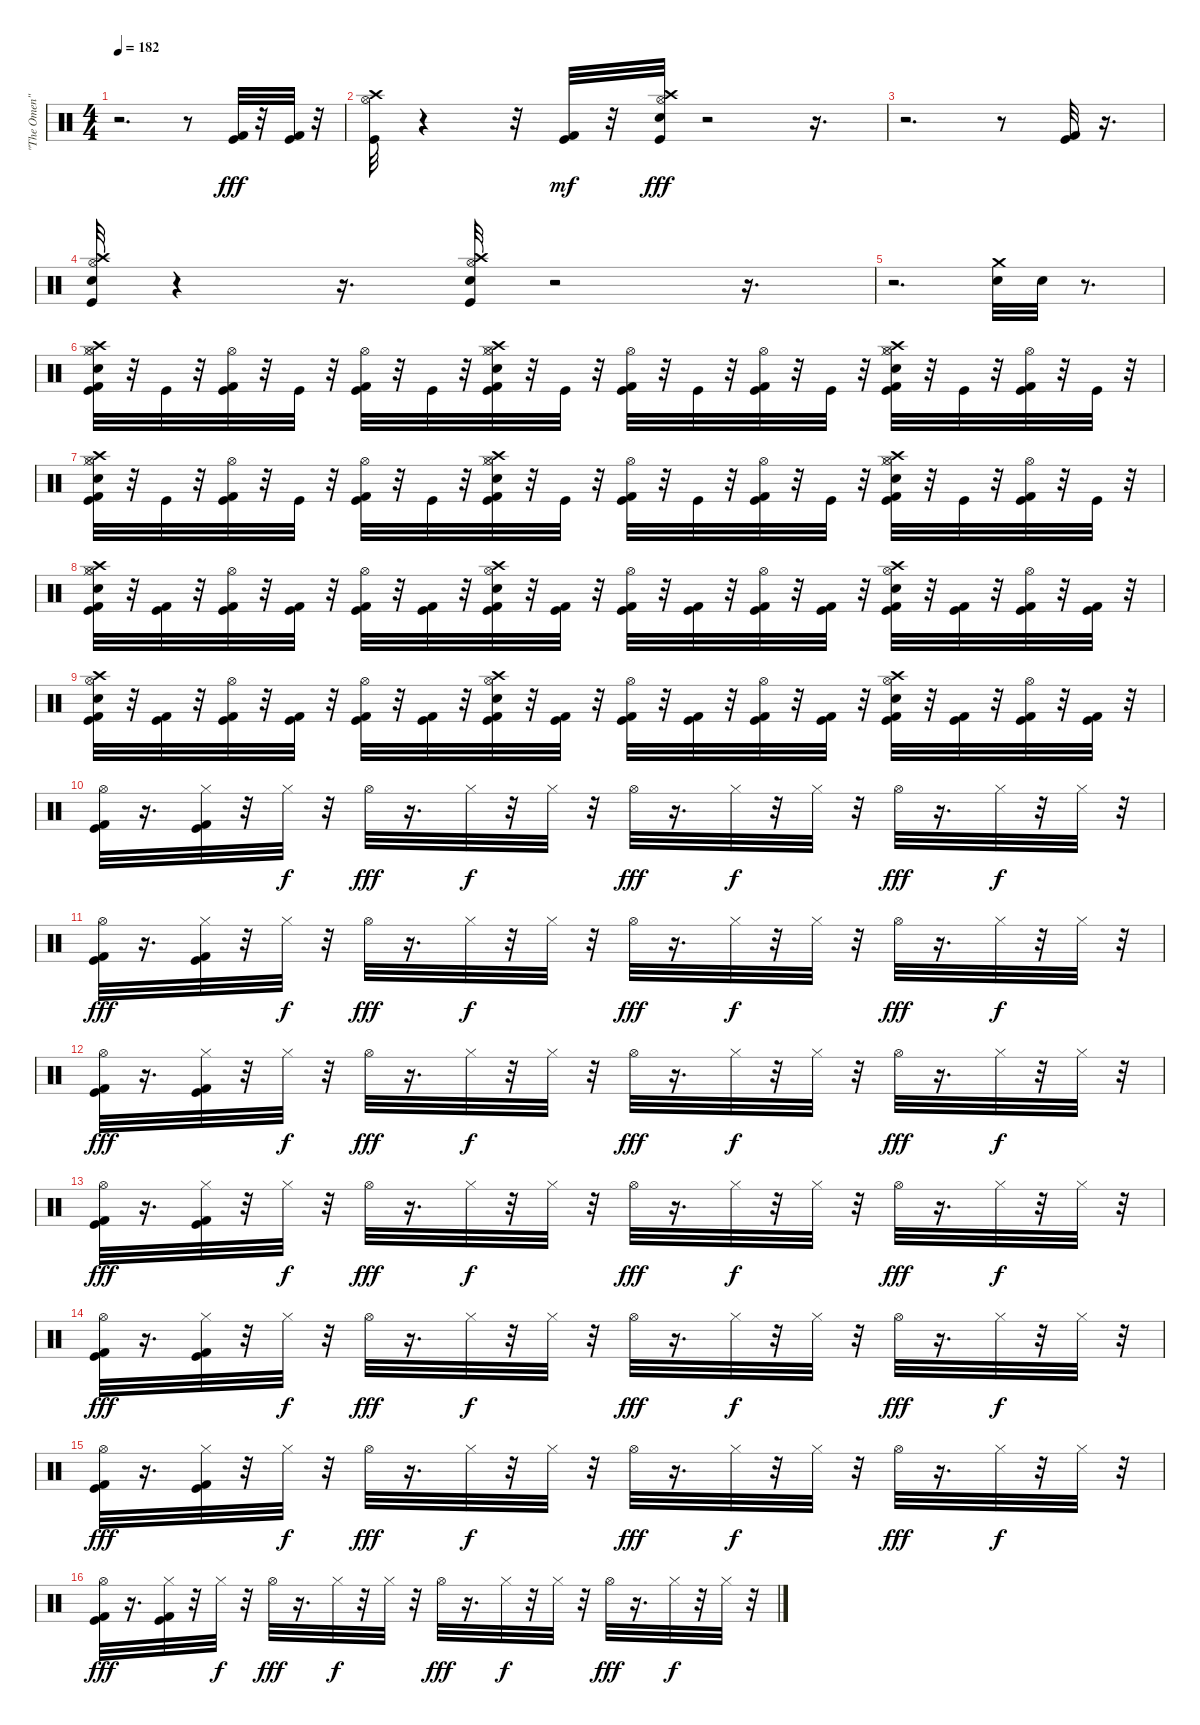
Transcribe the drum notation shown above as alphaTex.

\track ("\"The Omen\"" "\"The Omen\"") {instrument percussion}
\staff {score}
\articulation defaults
\ts (4 4)
\tempo 182
\clef neutral
\ks c
r.2{d dy f} r.8 ("Kick (hit)" "Kick (hit) 2").32{dy fff} r.32 ("Kick (hit)" "Kick (hit) 2").32 r.32 |
("Kick (hit)" "Hi-Hat (open)" "Crash high (hit)").32 r.4 r.32 ("Kick (hit)" "Kick (hit) 2").32{dy mf} r.32 ("Kick (hit)" "Snare (hit) 2" "Hi-Hat (open)" "Crash high (hit)").32{dy fff} r.2 r.16{d} |
r.2{d} r.8 ("Kick (hit)" "Kick (hit) 2").32 r.16{d} |
("Kick (hit)" "Snare (hit) 2" "Hi-Hat (open)" "Crash high (hit)").32 r.4 r.16{d} ("Kick (hit)" "Snare (hit) 2" "Hi-Hat (open)" "Crash high (hit)").32 r.2 r.16{d} |
r.2{d} ("Snare (hit) 2" "Crash medium (hit)").32 "Snare (hit) 2".32 r.8{d} |
("Kick (hit)" "Kick (hit) 2" "Snare (hit) 2" "Hi-Hat (closed)" "Hi-Hat (open)" "Crash high (hit)").32 r.32 "Kick (hit)".32 r.32 ("Kick (hit)" "Kick (hit) 2" "Hi-Hat (open)").32 r.32 "Kick (hit)".32 r.32 ("Kick (hit)" "Kick (hit) 2" "Hi-Hat (open)").32 r.32 "Kick (hit)".32 r.32 ("Kick (hit)" "Kick (hit) 2" "Snare (hit) 2" "Hi-Hat (closed)" "Hi-Hat (open)" "Crash high (hit)").32 r.32 "Kick (hit)".32 r.32 ("Kick (hit)" "Kick (hit) 2" "Hi-Hat (open)").32 r.32 "Kick (hit)".32 r.32 ("Kick (hit)" "Kick (hit) 2" "Hi-Hat (open)").32 r.32 "Kick (hit)".32 r.32 ("Kick (hit)" "Kick (hit) 2" "Snare (hit) 2" "Hi-Hat (closed)" "Hi-Hat (open)" "Crash high (hit)").32 r.32 "Kick (hit)".32 r.32 ("Kick (hit)" "Kick (hit) 2" "Hi-Hat (open)").32 r.32 "Kick (hit)".32 r.32 |
("Kick (hit)" "Kick (hit) 2" "Snare (hit) 2" "Hi-Hat (closed)" "Hi-Hat (open)" "Crash high (hit)").32 r.32 "Kick (hit)".32 r.32 ("Kick (hit)" "Kick (hit) 2" "Hi-Hat (open)").32 r.32 "Kick (hit)".32 r.32 ("Kick (hit)" "Kick (hit) 2" "Hi-Hat (open)").32 r.32 "Kick (hit)".32 r.32 ("Kick (hit)" "Kick (hit) 2" "Snare (hit) 2" "Hi-Hat (closed)" "Hi-Hat (open)" "Crash high (hit)").32 r.32 "Kick (hit)".32 r.32 ("Kick (hit)" "Kick (hit) 2" "Hi-Hat (open)").32 r.32 "Kick (hit)".32 r.32 ("Kick (hit)" "Kick (hit) 2" "Hi-Hat (open)").32 r.32 "Kick (hit)".32 r.32 ("Kick (hit)" "Kick (hit) 2" "Snare (hit) 2" "Hi-Hat (closed)" "Hi-Hat (open)" "Crash high (hit)").32 r.32 "Kick (hit)".32 r.32 ("Kick (hit)" "Kick (hit) 2" "Hi-Hat (open)").32 r.32 "Kick (hit)".32 r.32 |
("Kick (hit)" "Kick (hit) 2" "Snare (hit) 2" "Hi-Hat (closed)" "Hi-Hat (open)" "Crash high (hit)").32 r.32 ("Kick (hit)" "Kick (hit) 2").32 r.32 ("Kick (hit)" "Kick (hit) 2" "Hi-Hat (open)").32 r.32 ("Kick (hit)" "Kick (hit) 2").32 r.32 ("Kick (hit)" "Kick (hit) 2" "Hi-Hat (open)").32 r.32 ("Kick (hit)" "Kick (hit) 2").32 r.32 ("Kick (hit)" "Kick (hit) 2" "Snare (hit) 2" "Hi-Hat (open)" "Crash high (hit)").32 r.32 ("Kick (hit)" "Kick (hit) 2").32 r.32 ("Kick (hit)" "Kick (hit) 2" "Hi-Hat (open)").32 r.32 ("Kick (hit)" "Kick (hit) 2").32 r.32 ("Kick (hit)" "Kick (hit) 2" "Hi-Hat (open)").32 r.32 ("Kick (hit)" "Kick (hit) 2").32 r.32 ("Kick (hit)" "Kick (hit) 2" "Snare (hit) 2" "Hi-Hat (open)" "Crash high (hit)").32 r.32 ("Kick (hit)" "Kick (hit) 2").32 r.32 ("Kick (hit)" "Kick (hit) 2" "Hi-Hat (open)").32 r.32 ("Kick (hit)" "Kick (hit) 2").32 r.32 |
("Kick (hit)" "Kick (hit) 2" "Snare (hit) 2" "Hi-Hat (open)" "Crash high (hit)").32 r.32 ("Kick (hit)" "Kick (hit) 2").32 r.32 ("Kick (hit)" "Kick (hit) 2" "Hi-Hat (open)").32 r.32 ("Kick (hit)" "Kick (hit) 2").32 r.32 ("Kick (hit)" "Kick (hit) 2" "Hi-Hat (open)").32 r.32 ("Kick (hit)" "Kick (hit) 2").32 r.32 ("Kick (hit)" "Kick (hit) 2" "Snare (hit) 2" "Hi-Hat (open)" "Crash high (hit)").32 r.32 ("Kick (hit)" "Kick (hit) 2").32 r.32 ("Kick (hit)" "Kick (hit) 2" "Hi-Hat (open)").32 r.32 ("Kick (hit)" "Kick (hit) 2").32 r.32 ("Kick (hit)" "Kick (hit) 2" "Hi-Hat (open)").32 r.32 ("Kick (hit)" "Kick (hit) 2").32 r.32 ("Kick (hit)" "Kick (hit) 2" "Snare (hit) 2" "Hi-Hat (open)" "Crash high (hit)").32 r.32 ("Kick (hit)" "Kick (hit) 2").32 r.32 ("Kick (hit)" "Kick (hit) 2" "Hi-Hat (open)").32 r.32 ("Kick (hit)" "Kick (hit) 2").32 r.32 |
("Kick (hit)" "Kick (hit) 2" "Hi-Hat (open)").32 r.16{d} ("Kick (hit)" "Kick (hit) 2" "Hi-Hat (closed)").32 r.32 "Hi-Hat (closed)".32{dy f} r.32 "Hi-Hat (open)".32{dy fff} r.16{d} "Hi-Hat (closed)".32{dy f} r.32 "Hi-Hat (closed)".32 r.32 "Hi-Hat (open)".32{dy fff} r.16{d} "Hi-Hat (closed)".32{dy f} r.32 "Hi-Hat (closed)".32 r.32 "Hi-Hat (open)".32{dy fff} r.16{d} "Hi-Hat (closed)".32{dy f} r.32 "Hi-Hat (closed)".32 r.32 |
("Kick (hit)" "Kick (hit) 2" "Hi-Hat (open)").32{dy fff} r.16{d} ("Kick (hit)" "Kick (hit) 2" "Hi-Hat (closed)").32 r.32 "Hi-Hat (closed)".32{dy f} r.32 "Hi-Hat (open)".32{dy fff} r.16{d} "Hi-Hat (closed)".32{dy f} r.32 "Hi-Hat (closed)".32 r.32 "Hi-Hat (open)".32{dy fff} r.16{d} "Hi-Hat (closed)".32{dy f} r.32 "Hi-Hat (closed)".32 r.32 "Hi-Hat (open)".32{dy fff} r.16{d} "Hi-Hat (closed)".32{dy f} r.32 "Hi-Hat (closed)".32 r.32 |
("Kick (hit)" "Kick (hit) 2" "Hi-Hat (open)").32{dy fff} r.16{d} ("Kick (hit)" "Kick (hit) 2" "Hi-Hat (closed)").32 r.32 "Hi-Hat (closed)".32{dy f} r.32 "Hi-Hat (open)".32{dy fff} r.16{d} "Hi-Hat (closed)".32{dy f} r.32 "Hi-Hat (closed)".32 r.32 "Hi-Hat (open)".32{dy fff} r.16{d} "Hi-Hat (closed)".32{dy f} r.32 "Hi-Hat (closed)".32 r.32 "Hi-Hat (open)".32{dy fff} r.16{d} "Hi-Hat (closed)".32{dy f} r.32 "Hi-Hat (closed)".32 r.32 |
("Kick (hit)" "Kick (hit) 2" "Hi-Hat (open)").32{dy fff} r.16{d} ("Kick (hit)" "Kick (hit) 2" "Hi-Hat (closed)").32 r.32 "Hi-Hat (closed)".32{dy f} r.32 "Hi-Hat (open)".32{dy fff} r.16{d} "Hi-Hat (closed)".32{dy f} r.32 "Hi-Hat (closed)".32 r.32 "Hi-Hat (open)".32{dy fff} r.16{d} "Hi-Hat (closed)".32{dy f} r.32 "Hi-Hat (closed)".32 r.32 "Hi-Hat (open)".32{dy fff} r.16{d} "Hi-Hat (closed)".32{dy f} r.32 "Hi-Hat (closed)".32 r.32 |
("Kick (hit)" "Kick (hit) 2" "Hi-Hat (open)").32{dy fff} r.16{d} ("Kick (hit)" "Kick (hit) 2" "Hi-Hat (closed)").32 r.32 "Hi-Hat (closed)".32{dy f} r.32 "Hi-Hat (open)".32{dy fff} r.16{d} "Hi-Hat (closed)".32{dy f} r.32 "Hi-Hat (closed)".32 r.32 "Hi-Hat (open)".32{dy fff} r.16{d} "Hi-Hat (closed)".32{dy f} r.32 "Hi-Hat (closed)".32 r.32 "Hi-Hat (open)".32{dy fff} r.16{d} "Hi-Hat (closed)".32{dy f} r.32 "Hi-Hat (closed)".32 r.32 |
("Kick (hit)" "Kick (hit) 2" "Hi-Hat (open)").32{dy fff} r.16{d} ("Kick (hit)" "Kick (hit) 2" "Hi-Hat (closed)").32 r.32 "Hi-Hat (closed)".32{dy f} r.32 "Hi-Hat (open)".32{dy fff} r.16{d} "Hi-Hat (closed)".32{dy f} r.32 "Hi-Hat (closed)".32 r.32 "Hi-Hat (open)".32{dy fff} r.16{d} "Hi-Hat (closed)".32{dy f} r.32 "Hi-Hat (closed)".32 r.32 "Hi-Hat (open)".32{dy fff} r.16{d} "Hi-Hat (closed)".32{dy f} r.32 "Hi-Hat (closed)".32 r.32 |
("Kick (hit)" "Kick (hit) 2" "Hi-Hat (open)").32{dy fff} r.16{d} ("Kick (hit)" "Kick (hit) 2" "Hi-Hat (closed)").32 r.32 "Hi-Hat (closed)".32{dy f} r.32 "Hi-Hat (open)".32{dy fff} r.16{d} "Hi-Hat (closed)".32{dy f} r.32 "Hi-Hat (closed)".32 r.32 "Hi-Hat (open)".32{dy fff} r.16{d} "Hi-Hat (closed)".32{dy f} r.32 "Hi-Hat (closed)".32 r.32 "Hi-Hat (open)".32{dy fff} r.16{d} "Hi-Hat (closed)".32{dy f} r.32 "Hi-Hat (closed)".32 r.32
